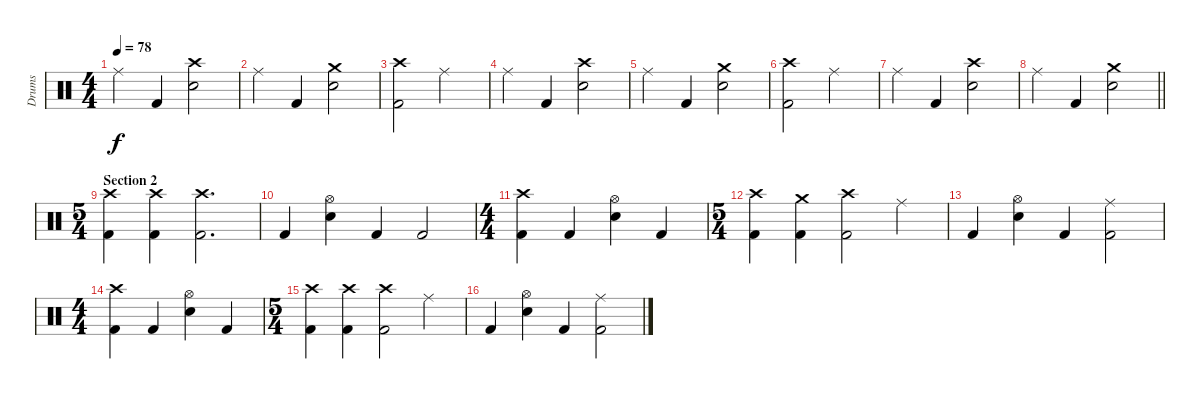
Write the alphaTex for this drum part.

\track ("Drums" "Drums") {instrument percussion}
\staff {score}
\articulation defaults
\ts (4 4)
\tempo 78
\clef neutral
\ks c "Ride (middle)".4{dy f} "Kick (hit) 2".4
("Crash high (hit)" "Electric Snare (hit)").2 |
"Ride (middle)".4 "Kick (hit) 2".4 ("Crash medium (hit)" "Electric Snare (hit)").2 |
("Crash high (hit)" "Kick (hit) 2").2 "Ride (middle)".2 |
"Ride (middle)".4 "Kick (hit) 2".4 ("Crash high (hit)" "Electric Snare (hit)").2 |
"Ride (middle)".4 "Kick (hit) 2".4 ("Crash medium (hit)" "Electric Snare (hit)").2 |
("Crash high (hit)" "Kick (hit) 2").2 "Ride (middle)".2 |
"Ride (middle)".4 "Kick (hit) 2".4 ("Crash high (hit)" "Electric Snare (hit)").2 |
\barLineRight lightlight "Ride (middle)".4 "Kick (hit) 2".4
("Crash medium (hit)" "Electric Snare (hit)").2 |
\ts (5 4)
\section ("" "Section 2")
("Crash high (hit)" "Kick (hit) 2").4 ("Crash high (hit)" "Kick (hit) 2").4 ("Crash high (hit)" "Kick (hit) 2").2{d} |
"Kick (hit) 2".4 ("Hi-Hat (open)" "Electric Snare (hit)").4 "Kick (hit) 2".4 "Kick (hit) 2".2 |
\ts (4 4)
("Crash high (hit)" "Kick (hit) 2").4 "Kick (hit) 2".4 ("Hi-Hat (open)" "Electric Snare (hit)").4 "Kick (hit) 2".4 |
\ts (5 4)
("Crash high (hit)" "Kick (hit) 2").4 ("Crash medium (hit)" "Kick (hit) 2").4 ("Crash high (hit)" "Kick (hit) 2").2 "Ride (middle)".4 |
"Kick (hit) 2".4 ("Hi-Hat (open)" "Electric Snare (hit)").4 "Kick (hit) 2".4 ("Ride (middle)" "Kick (hit) 2").2 |
\ts (4 4)
("Crash high (hit)" "Kick (hit) 2").4 "Kick (hit) 2".4 ("Hi-Hat (open)" "Electric Snare (hit)").4 "Kick (hit) 2".4 |
\ts (5 4)
("Crash high (hit)" "Kick (hit) 2").4 ("Crash high (hit)" "Kick (hit) 2").4 ("Crash high (hit)" "Kick (hit) 2").2 "Ride (middle)".4 |
"Kick (hit) 2".4 ("Hi-Hat (open)" "Electric Snare (hit)").4 "Kick (hit) 2".4 ("Ride (middle)" "Kick (hit) 2").2
